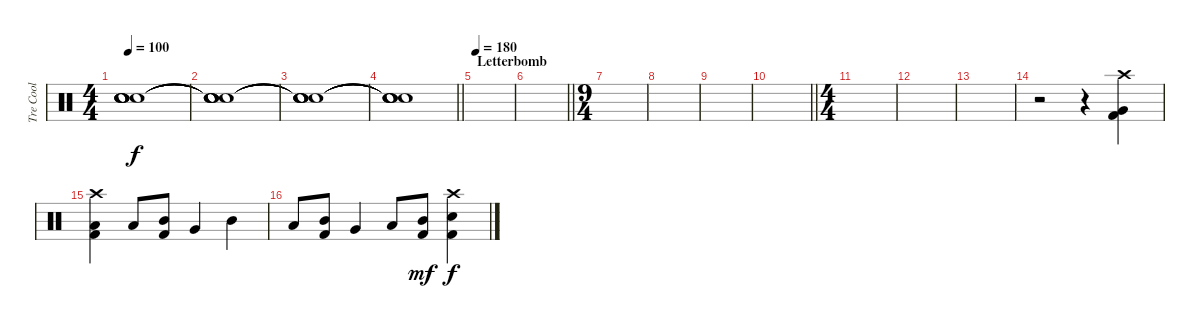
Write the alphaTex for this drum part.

\track ("Tre Cool" "Tre Cool") {instrument percussion}
\staff {score}
\articulation defaults
\ts (4 4)
\tempo 100
\clef neutral
\ks c
("Snare (hit)"{t} "Snare (hit)"{t} "Snare (hit)"{t} "Snare (hit)"{t} "Snare (hit)"{t}).1{dy f} |
("Snare (hit)"{t} "Snare (hit)"{t} "Snare (hit)"{t} "Snare (hit)"{t} "Snare (hit)"{t}).1 |
("Snare (hit)"{t} "Snare (hit)"{t} "Snare (hit)"{t} "Snare (hit)"{t} "Snare (hit)"{t}).1 |
\barLineRight lightlight
("Snare (hit)"{t} "Snare (hit)"{t} "Snare (hit)"{t} "Snare (hit)"{t} "Snare (hit)"{t}).1 |
\section ("" "Letterbomb")
\tempo 180
|
\barLineRight lightlight
|
\ts (9 4)
|
|
|
\barLineRight lightlight
|
\ts (4 4)
|
|
|
r.2 r.4 ("Crash high (hit)" "Very Low Tom (hit)" "Kick (hit) 2").4 |
("Crash high (hit)" "Low Tom (hit)" "Kick (hit) 2").4 "Low Tom (hit)".8 ("Mid Tom (hit)" "Kick (hit) 2").8 "Very Low Tom (hit)".4 "Mid Tom (hit)".4 |
"Low Tom (hit)".8 ("Mid Tom (hit)" "Kick (hit) 2").8 "Very Low Tom (hit)".4 "Low Tom (hit)".8 ("Mid Tom (hit)" "Kick (hit) 2").8{dy mf} ("Crash high (hit)" "Electric Snare (hit)" "Kick (hit) 2").4{dy f}
